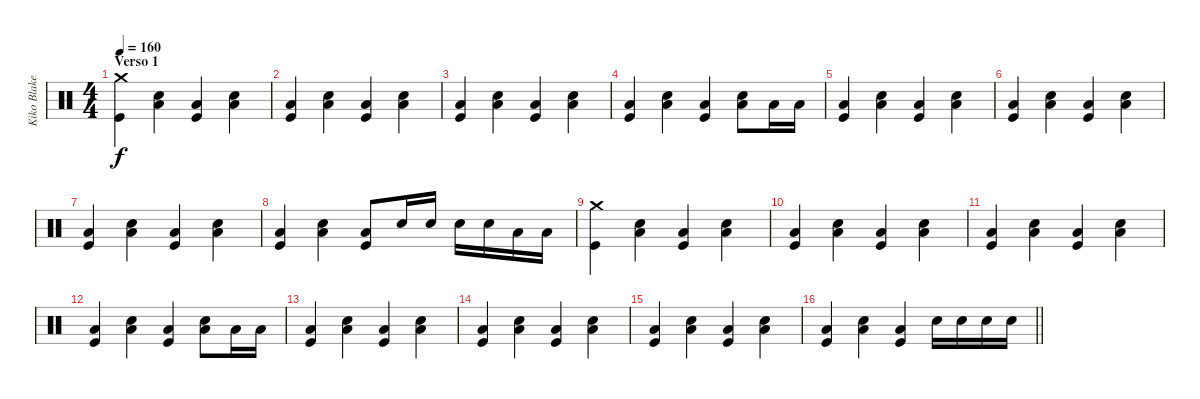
\track ("Kiko Blake" "Kiko Blake") {instrument percussion}
\staff {score}
\articulation defaults
\ts (4 4)
\section ("" "Verso 1")
\tempo 160
\clef neutral
\ks c
("Crash medium (hit)" "Kick (hit)").4{dy f} ("Low Floor Tom (hit)" "Snare (hit) 2").4 ("Low Floor Tom (hit)" "Kick (hit)").4 ("Low Floor Tom (hit)" "Snare (hit) 2").4 |
("Low Floor Tom (hit)" "Kick (hit)").4 ("Low Floor Tom (hit)" "Snare (hit) 2").4 ("Low Floor Tom (hit)" "Kick (hit)").4 ("Low Floor Tom (hit)" "Snare (hit) 2").4 |
("Low Floor Tom (hit)" "Kick (hit)").4 ("Low Floor Tom (hit)" "Snare (hit) 2").4 ("Low Floor Tom (hit)" "Kick (hit)").4 ("Low Floor Tom (hit)" "Snare (hit) 2").4 |
("Low Floor Tom (hit)" "Kick (hit)").4 ("Low Floor Tom (hit)" "Snare (hit) 2").4 ("Low Floor Tom (hit)" "Kick (hit)").4 ("Low Floor Tom (hit)" "Snare (hit) 2").8 "Low Floor Tom (hit)".16 "Low Floor Tom (hit)".16 |
("Low Floor Tom (hit)" "Kick (hit)").4 ("Low Floor Tom (hit)" "Snare (hit) 2").4 ("Low Floor Tom (hit)" "Kick (hit)").4 ("Low Floor Tom (hit)" "Snare (hit) 2").4 |
("Low Floor Tom (hit)" "Kick (hit)").4 ("Low Floor Tom (hit)" "Snare (hit) 2").4 ("Low Floor Tom (hit)" "Kick (hit)").4 ("Low Floor Tom (hit)" "Snare (hit) 2").4 |
("Low Floor Tom (hit)" "Kick (hit)").4 ("Low Floor Tom (hit)" "Snare (hit) 2").4 ("Low Floor Tom (hit)" "Kick (hit)").4 ("Low Floor Tom (hit)" "Snare (hit) 2").4 |
("Low Floor Tom (hit)" "Kick (hit)").4 ("Low Floor Tom (hit)" "Snare (hit) 2").4 ("Low Floor Tom (hit)" "Kick (hit)").8 "Snare (hit) 2".16 "Snare (hit) 2".16 "Snare (hit) 2".16 "Snare (hit) 2".16 "Low Tom (hit)".16 "Low Tom (hit)".16 |
("Crash medium (hit)" "Kick (hit)").4 ("Low Floor Tom (hit)" "Snare (hit) 2").4 ("Low Floor Tom (hit)" "Kick (hit)").4 ("Low Floor Tom (hit)" "Snare (hit) 2").4 |
("Low Floor Tom (hit)" "Kick (hit)").4 ("Low Floor Tom (hit)" "Snare (hit) 2").4 ("Low Floor Tom (hit)" "Kick (hit)").4 ("Low Floor Tom (hit)" "Snare (hit) 2").4 |
("Low Floor Tom (hit)" "Kick (hit)").4 ("Low Floor Tom (hit)" "Snare (hit) 2").4 ("Low Floor Tom (hit)" "Kick (hit)").4 ("Low Floor Tom (hit)" "Snare (hit) 2").4 |
("Low Floor Tom (hit)" "Kick (hit)").4 ("Low Floor Tom (hit)" "Snare (hit) 2").4 ("Low Floor Tom (hit)" "Kick (hit)").4 ("Low Floor Tom (hit)" "Snare (hit) 2").8 "Low Floor Tom (hit)".16 "Low Floor Tom (hit)".16 |
("Low Floor Tom (hit)" "Kick (hit)").4 ("Low Floor Tom (hit)" "Snare (hit) 2").4 ("Low Floor Tom (hit)" "Kick (hit)").4 ("Low Floor Tom (hit)" "Snare (hit) 2").4 |
("Low Floor Tom (hit)" "Kick (hit)").4 ("Low Floor Tom (hit)" "Snare (hit) 2").4 ("Low Floor Tom (hit)" "Kick (hit)").4 ("Low Floor Tom (hit)" "Snare (hit) 2").4 |
("Low Floor Tom (hit)" "Kick (hit)").4 ("Low Floor Tom (hit)" "Snare (hit) 2").4 ("Low Floor Tom (hit)" "Kick (hit)").4 ("Low Floor Tom (hit)" "Snare (hit) 2").4 |
\barLineRight lightlight
("Low Floor Tom (hit)" "Kick (hit)").4 ("Low Floor Tom (hit)" "Snare (hit) 2").4 ("Low Floor Tom (hit)" "Kick (hit)").4 "Snare (hit) 2".16 "Snare (hit) 2".16 "Snare (hit) 2".16 "Snare (hit) 2".16
